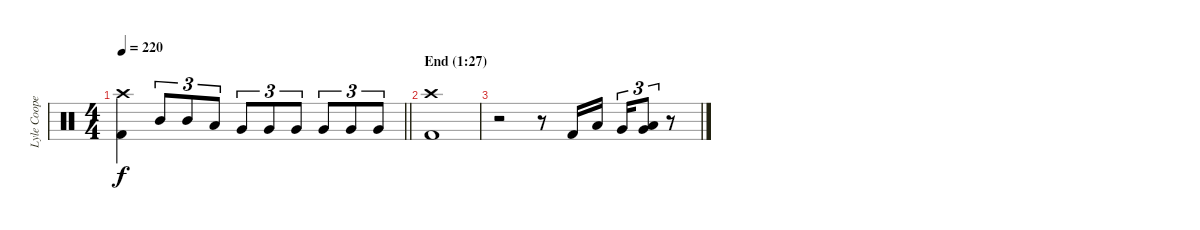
\track ("Lyle Cooper [Drums]" "Lyle Coope") {instrument percussion}
\staff {score}
\articulation defaults
\ts (4 4)
\tempo 220
\clef neutral
\barLineRight lightlight
\ks c
("Crash high (hit)" "Kick (hit) 2").4{dy f} "Mid Tom (hit)".8{tu (3 2)} "Mid Tom (hit)".8{tu (3 2)} "Low Tom (hit)".8{tu (3 2)} "Very Low Tom (hit)".8{tu (3 2)} "Very Low Tom (hit)".8{tu (3 2)} "Very Low Tom (hit)".8{tu (3 2)} "Very Low Tom (hit)".8{tu (3 2)} "Very Low Tom (hit)".8{tu (3 2)} "Very Low Tom (hit)".8{tu (3 2)} |
\section ("" "End (1:27)")
("Crash high (hit)" "Kick (hit) 2").1 |
r.2 r.8 "Kick (hit) 2".16 "Low Floor Tom (hit)".16 "Very Low Tom (hit)".16{tu (3 2)} ("Very Low Tom (hit)" "Low Floor Tom (hit)").8{tu (3 2)} r.8
